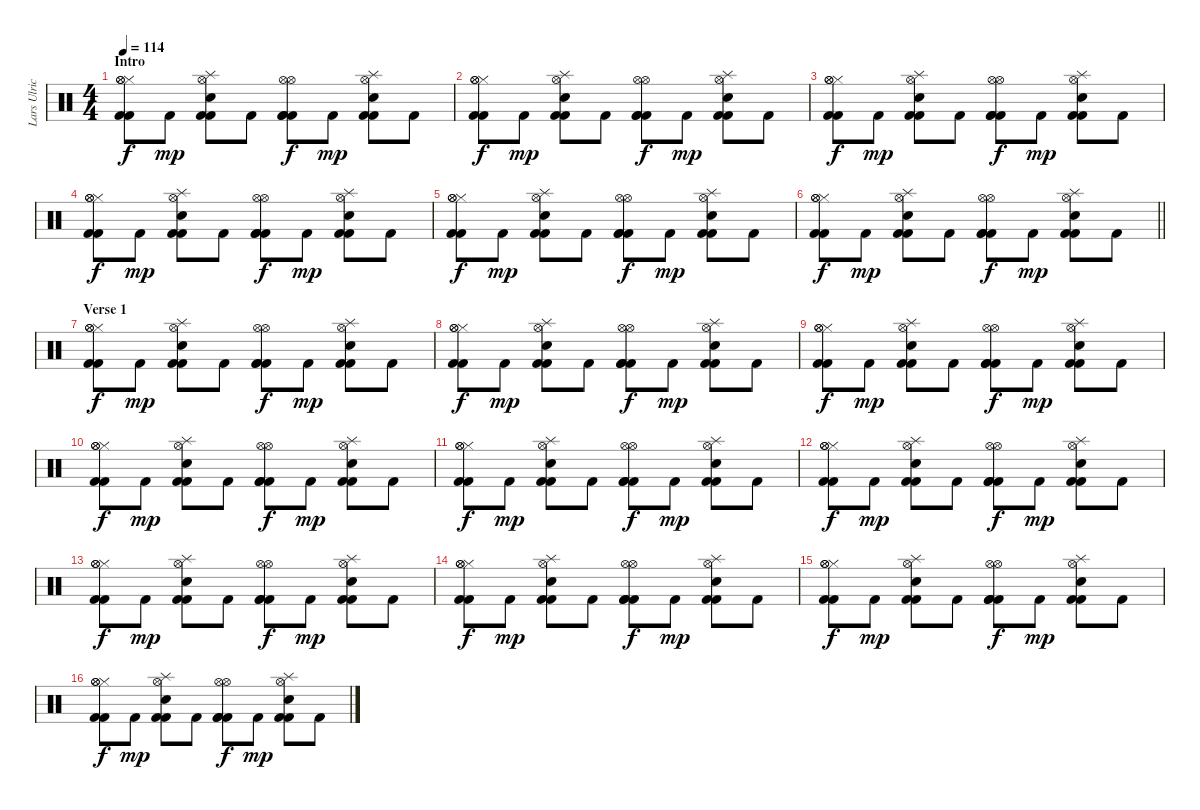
\track ("Lars Ulrich" "Lars Ulric") {instrument percussion}
\staff {score}
\articulation defaults
\ts (4 4)
\section ("" "Intro")
\tempo 114
\clef neutral
\ks c
("Hi-Hat (closed)" "Hi-Hat (open)" "Hi-Hat (open)" "Kick (hit) 2" "Kick (hit) 2").8{dy f} "Kick (hit) 2".8{dy mp} ("Snare (hit) 2" "Splash (hit)" "Hi-Hat (open)" "Kick (hit) 2" "Kick (hit) 2").8 "Kick (hit) 2".8 ("Kick (hit) 2" "Hi-Hat (open)" "Hi-Hat (open)" "Kick (hit) 2" "Kick (hit) 2").8{dy f} "Kick (hit) 2".8{dy mp} ("Snare (hit) 2" "Splash (hit)" "Hi-Hat (open)" "Kick (hit) 2" "Kick (hit) 2").8 "Kick (hit) 2".8 |
("Hi-Hat (closed)" "Hi-Hat (open)" "Hi-Hat (open)" "Kick (hit) 2" "Kick (hit) 2").8{dy f} "Kick (hit) 2".8{dy mp} ("Snare (hit) 2" "Splash (hit)" "Hi-Hat (open)" "Kick (hit) 2" "Kick (hit) 2").8 "Kick (hit) 2".8 ("Kick (hit) 2" "Hi-Hat (open)" "Hi-Hat (open)" "Kick (hit) 2" "Kick (hit) 2").8{dy f} "Kick (hit) 2".8{dy mp} ("Snare (hit) 2" "Splash (hit)" "Hi-Hat (open)" "Kick (hit) 2" "Kick (hit) 2").8 "Kick (hit) 2".8 |
("Hi-Hat (closed)" "Hi-Hat (open)" "Hi-Hat (open)" "Kick (hit) 2" "Kick (hit) 2").8{dy f} "Kick (hit) 2".8{dy mp} ("Snare (hit) 2" "Splash (hit)" "Hi-Hat (open)" "Kick (hit) 2" "Kick (hit) 2").8 "Kick (hit) 2".8 ("Kick (hit) 2" "Hi-Hat (open)" "Hi-Hat (open)" "Kick (hit) 2" "Kick (hit) 2").8{dy f} "Kick (hit) 2".8{dy mp} ("Snare (hit) 2" "Splash (hit)" "Hi-Hat (open)" "Kick (hit) 2" "Kick (hit) 2").8 "Kick (hit) 2".8 |
("Hi-Hat (closed)" "Hi-Hat (open)" "Hi-Hat (open)" "Kick (hit) 2" "Kick (hit) 2").8{dy f} "Kick (hit) 2".8{dy mp} ("Snare (hit) 2" "Splash (hit)" "Hi-Hat (open)" "Kick (hit) 2" "Kick (hit) 2").8 "Kick (hit) 2".8 ("Kick (hit) 2" "Hi-Hat (open)" "Hi-Hat (open)" "Kick (hit) 2" "Kick (hit) 2").8{dy f} "Kick (hit) 2".8{dy mp} ("Snare (hit) 2" "Splash (hit)" "Hi-Hat (open)" "Kick (hit) 2" "Kick (hit) 2").8 "Kick (hit) 2".8 |
("Hi-Hat (closed)" "Hi-Hat (open)" "Hi-Hat (open)" "Kick (hit) 2" "Kick (hit) 2").8{dy f} "Kick (hit) 2".8{dy mp} ("Snare (hit) 2" "Splash (hit)" "Hi-Hat (open)" "Kick (hit) 2" "Kick (hit) 2").8 "Kick (hit) 2".8 ("Kick (hit) 2" "Hi-Hat (open)" "Hi-Hat (open)" "Kick (hit) 2" "Kick (hit) 2").8{dy f} "Kick (hit) 2".8{dy mp} ("Snare (hit) 2" "Splash (hit)" "Hi-Hat (open)" "Kick (hit) 2" "Kick (hit) 2").8 "Kick (hit) 2".8 |
\barLineRight lightlight
("Hi-Hat (closed)" "Hi-Hat (open)" "Hi-Hat (open)" "Kick (hit) 2" "Kick (hit) 2").8{dy f} "Kick (hit) 2".8{dy mp} ("Snare (hit) 2" "Splash (hit)" "Hi-Hat (open)" "Kick (hit) 2" "Kick (hit) 2").8 "Kick (hit) 2".8 ("Kick (hit) 2" "Hi-Hat (open)" "Hi-Hat (open)" "Kick (hit) 2" "Kick (hit) 2").8{dy f} "Kick (hit) 2".8{dy mp} ("Snare (hit) 2" "Splash (hit)" "Hi-Hat (open)" "Kick (hit) 2" "Kick (hit) 2").8 "Kick (hit) 2".8 |
\section ("" "Verse 1")
("Hi-Hat (closed)" "Hi-Hat (open)" "Hi-Hat (open)" "Kick (hit) 2" "Kick (hit) 2").8{dy f} "Kick (hit) 2".8{dy mp} ("Snare (hit) 2" "Splash (hit)" "Hi-Hat (open)" "Kick (hit) 2" "Kick (hit) 2").8 "Kick (hit) 2".8 ("Kick (hit) 2" "Hi-Hat (open)" "Hi-Hat (open)" "Kick (hit) 2" "Kick (hit) 2").8{dy f} "Kick (hit) 2".8{dy mp} ("Snare (hit) 2" "Splash (hit)" "Hi-Hat (open)" "Kick (hit) 2" "Kick (hit) 2").8 "Kick (hit) 2".8 |
("Hi-Hat (closed)" "Hi-Hat (open)" "Hi-Hat (open)" "Kick (hit) 2" "Kick (hit) 2").8{dy f} "Kick (hit) 2".8{dy mp} ("Snare (hit) 2" "Splash (hit)" "Hi-Hat (open)" "Kick (hit) 2" "Kick (hit) 2").8 "Kick (hit) 2".8 ("Kick (hit) 2" "Hi-Hat (open)" "Hi-Hat (open)" "Kick (hit) 2" "Kick (hit) 2").8{dy f} "Kick (hit) 2".8{dy mp} ("Snare (hit) 2" "Splash (hit)" "Hi-Hat (open)" "Kick (hit) 2" "Kick (hit) 2").8 "Kick (hit) 2".8 |
("Hi-Hat (closed)" "Hi-Hat (open)" "Hi-Hat (open)" "Kick (hit) 2" "Kick (hit) 2").8{dy f} "Kick (hit) 2".8{dy mp} ("Snare (hit) 2" "Splash (hit)" "Hi-Hat (open)" "Kick (hit) 2" "Kick (hit) 2").8 "Kick (hit) 2".8 ("Kick (hit) 2" "Hi-Hat (open)" "Hi-Hat (open)" "Kick (hit) 2" "Kick (hit) 2").8{dy f} "Kick (hit) 2".8{dy mp} ("Snare (hit) 2" "Splash (hit)" "Hi-Hat (open)" "Kick (hit) 2" "Kick (hit) 2").8 "Kick (hit) 2".8 |
("Hi-Hat (closed)" "Hi-Hat (open)" "Hi-Hat (open)" "Kick (hit) 2" "Kick (hit) 2").8{dy f} "Kick (hit) 2".8{dy mp} ("Snare (hit) 2" "Splash (hit)" "Hi-Hat (open)" "Kick (hit) 2" "Kick (hit) 2").8 "Kick (hit) 2".8 ("Kick (hit) 2" "Hi-Hat (open)" "Hi-Hat (open)" "Kick (hit) 2" "Kick (hit) 2").8{dy f} "Kick (hit) 2".8{dy mp} ("Snare (hit) 2" "Splash (hit)" "Hi-Hat (open)" "Kick (hit) 2" "Kick (hit) 2").8 "Kick (hit) 2".8 |
("Hi-Hat (closed)" "Hi-Hat (open)" "Hi-Hat (open)" "Kick (hit) 2" "Kick (hit) 2").8{dy f} "Kick (hit) 2".8{dy mp} ("Snare (hit) 2" "Splash (hit)" "Hi-Hat (open)" "Kick (hit) 2" "Kick (hit) 2").8 "Kick (hit) 2".8 ("Kick (hit) 2" "Hi-Hat (open)" "Hi-Hat (open)" "Kick (hit) 2" "Kick (hit) 2").8{dy f} "Kick (hit) 2".8{dy mp} ("Snare (hit) 2" "Splash (hit)" "Hi-Hat (open)" "Kick (hit) 2" "Kick (hit) 2").8 "Kick (hit) 2".8 |
("Hi-Hat (closed)" "Hi-Hat (open)" "Hi-Hat (open)" "Kick (hit) 2" "Kick (hit) 2").8{dy f} "Kick (hit) 2".8{dy mp} ("Snare (hit) 2" "Splash (hit)" "Hi-Hat (open)" "Kick (hit) 2" "Kick (hit) 2").8 "Kick (hit) 2".8 ("Kick (hit) 2" "Hi-Hat (open)" "Hi-Hat (open)" "Kick (hit) 2" "Kick (hit) 2").8{dy f} "Kick (hit) 2".8{dy mp} ("Snare (hit) 2" "Splash (hit)" "Hi-Hat (open)" "Kick (hit) 2" "Kick (hit) 2").8 "Kick (hit) 2".8 |
("Hi-Hat (closed)" "Hi-Hat (open)" "Hi-Hat (open)" "Kick (hit) 2" "Kick (hit) 2").8{dy f} "Kick (hit) 2".8{dy mp} ("Snare (hit) 2" "Splash (hit)" "Hi-Hat (open)" "Kick (hit) 2" "Kick (hit) 2").8 "Kick (hit) 2".8 ("Kick (hit) 2" "Hi-Hat (open)" "Hi-Hat (open)" "Kick (hit) 2" "Kick (hit) 2").8{dy f} "Kick (hit) 2".8{dy mp} ("Snare (hit) 2" "Splash (hit)" "Hi-Hat (open)" "Kick (hit) 2" "Kick (hit) 2").8 "Kick (hit) 2".8 |
("Hi-Hat (closed)" "Hi-Hat (open)" "Hi-Hat (open)" "Kick (hit) 2" "Kick (hit) 2").8{dy f} "Kick (hit) 2".8{dy mp} ("Snare (hit) 2" "Splash (hit)" "Hi-Hat (open)" "Kick (hit) 2" "Kick (hit) 2").8 "Kick (hit) 2".8 ("Kick (hit) 2" "Hi-Hat (open)" "Hi-Hat (open)" "Kick (hit) 2" "Kick (hit) 2").8{dy f} "Kick (hit) 2".8{dy mp} ("Snare (hit) 2" "Splash (hit)" "Hi-Hat (open)" "Kick (hit) 2" "Kick (hit) 2").8 "Kick (hit) 2".8 |
("Hi-Hat (closed)" "Hi-Hat (open)" "Hi-Hat (open)" "Kick (hit) 2" "Kick (hit) 2").8{dy f} "Kick (hit) 2".8{dy mp} ("Snare (hit) 2" "Splash (hit)" "Hi-Hat (open)" "Kick (hit) 2" "Kick (hit) 2").8 "Kick (hit) 2".8 ("Kick (hit) 2" "Hi-Hat (open)" "Hi-Hat (open)" "Kick (hit) 2" "Kick (hit) 2").8{dy f} "Kick (hit) 2".8{dy mp} ("Snare (hit) 2" "Splash (hit)" "Hi-Hat (open)" "Kick (hit) 2" "Kick (hit) 2").8 "Kick (hit) 2".8 |
("Hi-Hat (closed)" "Hi-Hat (open)" "Hi-Hat (open)" "Kick (hit) 2" "Kick (hit) 2").8{dy f} "Kick (hit) 2".8{dy mp} ("Snare (hit) 2" "Splash (hit)" "Hi-Hat (open)" "Kick (hit) 2" "Kick (hit) 2").8 "Kick (hit) 2".8 ("Kick (hit) 2" "Hi-Hat (open)" "Hi-Hat (open)" "Kick (hit) 2" "Kick (hit) 2").8{dy f} "Kick (hit) 2".8{dy mp} ("Snare (hit) 2" "Splash (hit)" "Hi-Hat (open)" "Kick (hit) 2" "Kick (hit) 2").8 "Kick (hit) 2".8
